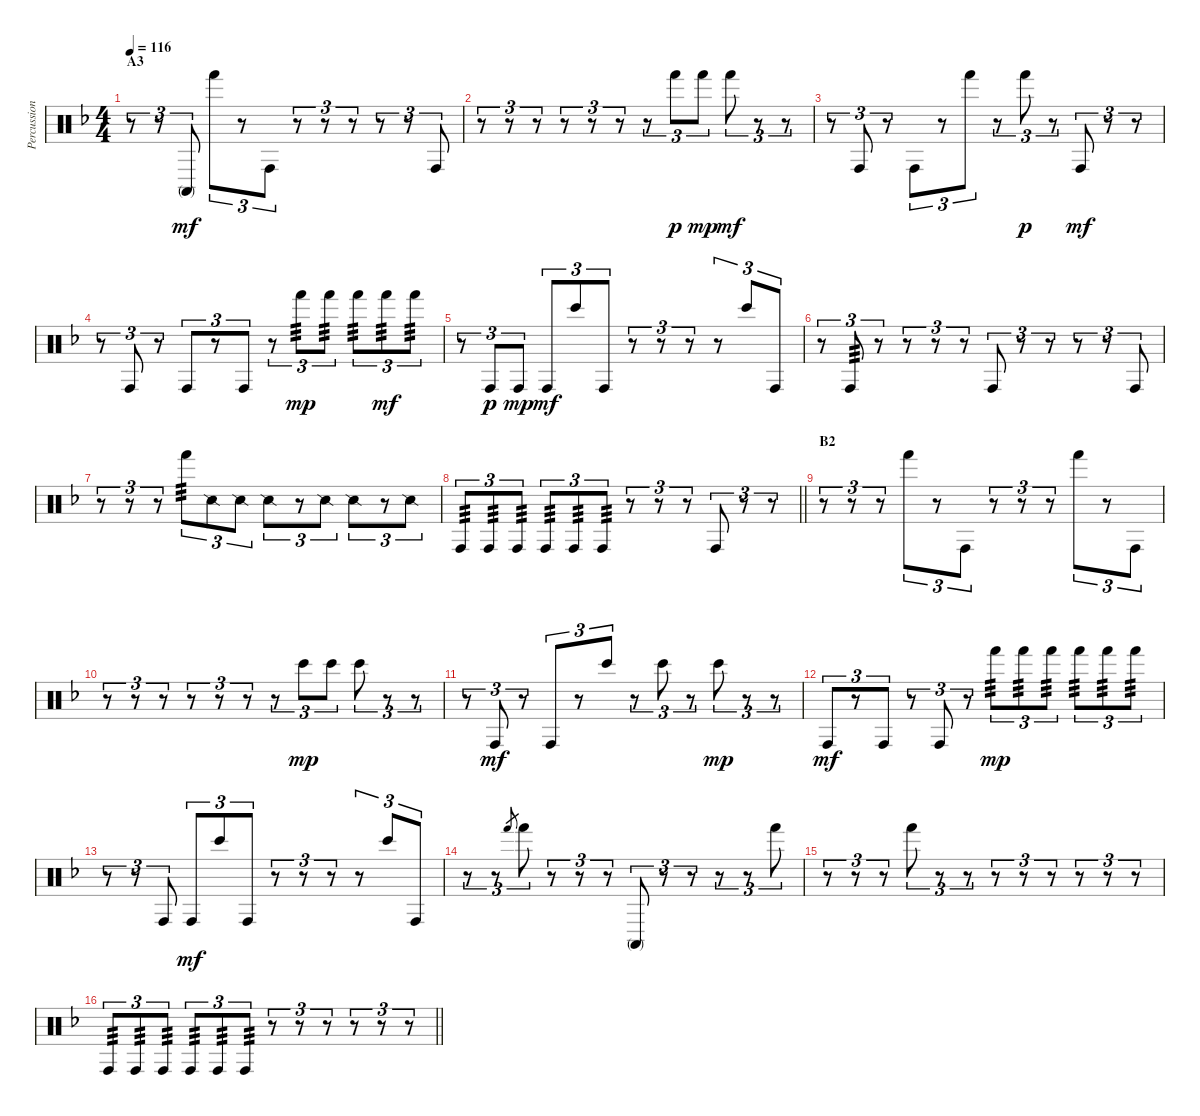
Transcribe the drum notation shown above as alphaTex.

\track ("Percussion" "Percussion") {instrument percussion}
\staff {score}
\articulation defaults
\ts (4 4)
\section ("" "A3")
\tempo 116
\clef neutral
\ks f
r.8{tu (3 2) dy mf} r.8{tu (3 2)} "Conga high (mute)".8{tu (3 2)} "Hand (hit)".8{tu (3 2)} r.8{tu (3 2)} "Conga high (hit)".8{tu (3 2)} r.8{tu (3 2)} r.8{tu (3 2)} r.8{tu (3 2)} r.8{tu (3 2)} r.8{tu (3 2)} "Conga high (hit)".8{tu (3 2)} |
r.8{tu (3 2)} r.8{tu (3 2)} r.8{tu (3 2)} r.8{tu (3 2)} r.8{tu (3 2)} r.8{tu (3 2)} r.8{tu (3 2)} "Hand (hit)".8{tu (3 2) dy p} "Hand (hit)".8{tu (3 2) dy mp} "Hand (hit)".8{tu (3 2) dy mf} r.8{tu (3 2)} r.8{tu (3 2)} |
r.8{tu (3 2)} "Conga high (hit)".8{tu (3 2)} r.8{tu (3 2)} "Conga high (hit)".8{tu (3 2)} r.8{tu (3 2)} "Hand (hit)".8{tu (3 2)} r.8{tu (3 2)} "Hand (hit)".8{tu (3 2) dy p} r.8{tu (3 2)} "Conga high (hit)".8{tu (3 2) dy mf} r.8{tu (3 2)} r.8{tu (3 2)} |
r.8{tu (3 2)} "Conga high (hit)".8{tu (3 2)} r.8{tu (3 2)} "Conga high (hit)".8{tu (3 2)} r.8{tu (3 2)} "Conga high (hit)".8{tu (3 2)} r.8{tu (3 2)} "Hand (hit)".8{tu (3 2) tp 3 dy mp} "Hand (hit)".8{tu (3 2) tp 3} "Hand (hit)".8{tu (3 2) tp 3} "Hand (hit)".8{tu (3 2) tp 3 dy mf} "Hand (hit)".8{tu (3 2) tp 3} |
r.8{tu (3 2)} "Conga high (hit)".8{tu (3 2) dy p} "Conga high (hit)".8{tu (3 2) dy mp} "Conga high (hit)".8{tu (3 2) dy mf} "Bongo High (hit)".8{tu (3 2)} "Conga high (hit)".8{tu (3 2)} r.8{tu (3 2)} r.8{tu (3 2)} r.8{tu (3 2)} r.8{tu (3 2)} "Bongo High (hit)".8{tu (3 2)} "Conga high (hit)".8{tu (3 2)} |
r.8{tu (3 2)} "Conga high (hit)".8{tu (3 2) tp 3} r.8{tu (3 2)} r.8{tu (3 2)} r.8{tu (3 2)} r.8{tu (3 2)} "Conga high (hit)".8{tu (3 2)} r.8{tu (3 2)} r.8{tu (3 2)} r.8{tu (3 2)} r.8{tu (3 2)} "Conga high (hit)".8{tu (3 2)} |
r.8{tu (3 2)} r.8{tu (3 2)} r.8{tu (3 2)} "Hand (hit)".8{tu (3 2) tp 3} "Snare (side stick) 2".8{tu (3 2)} "Snare (side stick) 2".8{tu (3 2)} "Snare (side stick) 2".8{tu (3 2)} r.8{tu (3 2)} "Snare (side stick) 2".8{tu (3 2)} "Snare (side stick) 2".8{tu (3 2)} r.8{tu (3 2)} "Snare (side stick) 2".8{tu (3 2)} |
\barLineRight lightlight "Conga high (hit)".8{tu (3 2) tp 3} "Conga high (hit)".8{tu (3 2) tp 3} "Conga high (hit)".8{tu (3 2) tp 3} "Conga high (hit)".8{tu (3 2) tp 3} "Conga high (hit)".8{tu (3 2) tp 3} "Conga high (hit)".8{tu (3 2) tp 3}
r.8{tu (3 2)} r.8{tu (3 2)} r.8{tu (3 2)} "Conga high (hit)".8{tu (3 2)} r.8{tu (3 2)} r.8{tu (3 2)} |
\section ("" "B2")
r.8{tu (3 2)} r.8{tu (3 2)} r.8{tu (3 2)} "Hand (hit)".8{tu (3 2)} r.8{tu (3 2)} "Conga high (hit)".8{tu (3 2)} r.8{tu (3 2)} r.8{tu (3 2)} r.8{tu (3 2)} "Hand (hit)".8{tu (3 2)} r.8{tu (3 2)} "Conga high (hit)".8{tu (3 2)} |
r.8{tu (3 2)} r.8{tu (3 2)} r.8{tu (3 2)} r.8{tu (3 2)} r.8{tu (3 2)} r.8{tu (3 2)} r.8{tu (3 2)} "Bongo High (hit)".8{tu (3 2) dy mp} "Bongo High (hit)".8{tu (3 2)} "Bongo High (hit)".8{tu (3 2)} r.8{tu (3 2)} r.8{tu (3 2)} |
r.8{tu (3 2)} "Conga high (hit)".8{tu (3 2) dy mf} r.8{tu (3 2)} "Conga high (hit)".8{tu (3 2)} r.8{tu (3 2)} "Bongo High (hit)".8{tu (3 2)} r.8{tu (3 2)} "Bongo High (hit)".8{tu (3 2)} r.8{tu (3 2)} "Bongo High (hit)".8{tu (3 2) dy mp} r.8{tu (3 2)} r.8{tu (3 2)} |
"Conga high (hit)".8{tu (3 2) dy mf} r.8{tu (3 2)} "Conga high (hit)".8{tu (3 2)} r.8{tu (3 2)} "Conga high (hit)".8{tu (3 2)} r.8{tu (3 2)} "Hand (hit)".8{tu (3 2) tp 3 dy mp} "Hand (hit)".8{tu (3 2) tp 3} "Hand (hit)".8{tu (3 2) tp 3} "Hand (hit)".8{tu (3 2) tp 3} "Hand (hit)".8{tu (3 2) tp 3} "Hand (hit)".8{tu (3 2) tp 3} |
r.8{tu (3 2)} r.8{tu (3 2)} "Conga high (hit)".8{tu (3 2)} "Conga high (hit)".8{tu (3 2) dy mf} "Bongo High (hit)".8{tu (3 2)} "Conga high (hit)".8{tu (3 2)} r.8{tu (3 2)} r.8{tu (3 2)} r.8{tu (3 2)} r.8{tu (3 2)} "Bongo High (hit)".8{tu (3 2)} "Conga high (hit)".8{tu (3 2)} |
r.8{tu (3 2)} r.8{tu (3 2)} "Hand (hit)".8{gr} "Hand (hit)".8{tu (3 2)} r.8{tu (3 2)} r.8{tu (3 2)} r.8{tu (3 2)} "Conga high (mute)".8{tu (3 2)} r.8{tu (3 2)} r.8{tu (3 2)} r.8{tu (3 2)} r.8{tu (3 2)} "Hand (hit)".8{tu (3 2)} |
r.8{tu (3 2)} r.8{tu (3 2)} r.8{tu (3 2)} "Hand (hit)".8{tu (3 2)} r.8{tu (3 2)} r.8{tu (3 2)} r.8{tu (3 2)} r.8{tu (3 2)} r.8{tu (3 2)} r.8{tu (3 2)} r.8{tu (3 2)} r.8{tu (3 2)} |
\barLineRight lightlight "Conga high (hit)".8{tu (3 2) tp 3} "Conga high (hit)".8{tu (3 2) tp 3} "Conga high (hit)".8{tu (3 2) tp 3} "Conga high (hit)".8{tu (3 2) tp 3} "Conga high (hit)".8{tu (3 2) tp 3} "Conga high (hit)".8{tu (3 2) tp 3}
r.8{tu (3 2)} r.8{tu (3 2)} r.8{tu (3 2)} r.8{tu (3 2)} r.8{tu (3 2)} r.8{tu (3 2)}
